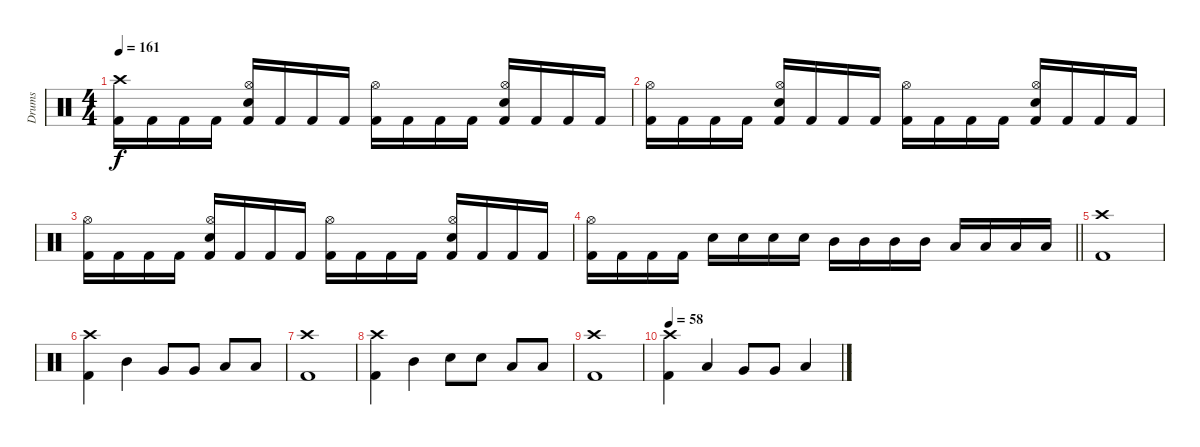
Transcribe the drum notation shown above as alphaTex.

\track ("Drums" "Drums") {instrument percussion}
\staff {score}
\articulation defaults
\ts (4 4)
\tempo 161
\clef neutral
\ks c
("Crash high (hit)" "Kick (hit) 2").16{dy f} "Kick (hit) 2".16 "Kick (hit) 2".16 "Kick (hit) 2".16 ("Hi-Hat (open)" "Snare (hit) 2" "Kick (hit) 2").16 "Kick (hit) 2".16 "Kick (hit) 2".16 "Kick (hit) 2".16 ("Hi-Hat (open)" "Kick (hit) 2").16 "Kick (hit) 2".16 "Kick (hit) 2".16 "Kick (hit) 2".16 ("Hi-Hat (open)" "Snare (hit) 2" "Kick (hit) 2").16 "Kick (hit) 2".16 "Kick (hit) 2".16 "Kick (hit) 2".16 |
("Hi-Hat (open)" "Kick (hit) 2").16 "Kick (hit) 2".16 "Kick (hit) 2".16 "Kick (hit) 2".16 ("Hi-Hat (open)" "Snare (hit) 2" "Kick (hit) 2").16 "Kick (hit) 2".16 "Kick (hit) 2".16 "Kick (hit) 2".16 ("Hi-Hat (open)" "Kick (hit) 2").16 "Kick (hit) 2".16 "Kick (hit) 2".16 "Kick (hit) 2".16 ("Hi-Hat (open)" "Snare (hit) 2" "Kick (hit) 2").16 "Kick (hit) 2".16 "Kick (hit) 2".16 "Kick (hit) 2".16 |
("Hi-Hat (open)" "Kick (hit) 2").16 "Kick (hit) 2".16 "Kick (hit) 2".16 "Kick (hit) 2".16 ("Hi-Hat (open)" "Snare (hit) 2" "Kick (hit) 2").16 "Kick (hit) 2".16 "Kick (hit) 2".16 "Kick (hit) 2".16 ("Hi-Hat (open)" "Kick (hit) 2").16 "Kick (hit) 2".16 "Kick (hit) 2".16 "Kick (hit) 2".16 ("Hi-Hat (open)" "Snare (hit) 2" "Kick (hit) 2").16 "Kick (hit) 2".16 "Kick (hit) 2".16 "Kick (hit) 2".16 |
\barLineRight lightlight
("Hi-Hat (open)" "Kick (hit) 2").16 "Kick (hit) 2".16 "Kick (hit) 2".16 "Kick (hit) 2".16 "Snare (hit) 2".16 "Snare (hit) 2".16 "Snare (hit) 2".16 "Snare (hit) 2".16 "Mid Tom (hit)".16 "Mid Tom (hit)".16 "Mid Tom (hit)".16 "Mid Tom (hit)".16 "Low Tom (hit)".16 "Low Tom (hit)".16 "Low Tom (hit)".16 "Low Tom (hit)".16 |
("Crash high (hit)" "Kick (hit) 2").1 |
("Crash high (hit)" "Kick (hit) 2").4 "Mid Tom (hit)".4 "Very Low Tom (hit)".8 "Very Low Tom (hit)".8 "Low Floor Tom (hit)".8 "Low Floor Tom (hit)".8 |
("Crash high (hit)" "Kick (hit) 2").1 |
("Crash high (hit)" "Kick (hit) 2").4 "Mid Tom (hit)".4 "Snare (hit) 2".8 "Snare (hit) 2".8 "Low Floor Tom (hit)".8 "Low Floor Tom (hit)".8 |
("Crash high (hit)" "Kick (hit) 2").1 |
\tempo 58
("Crash high (hit)" "Kick (hit) 2").4 "Low Tom (hit)".4 "Very Low Tom (hit)".8 "Very Low Tom (hit)".8 "Low Floor Tom (hit)".4
